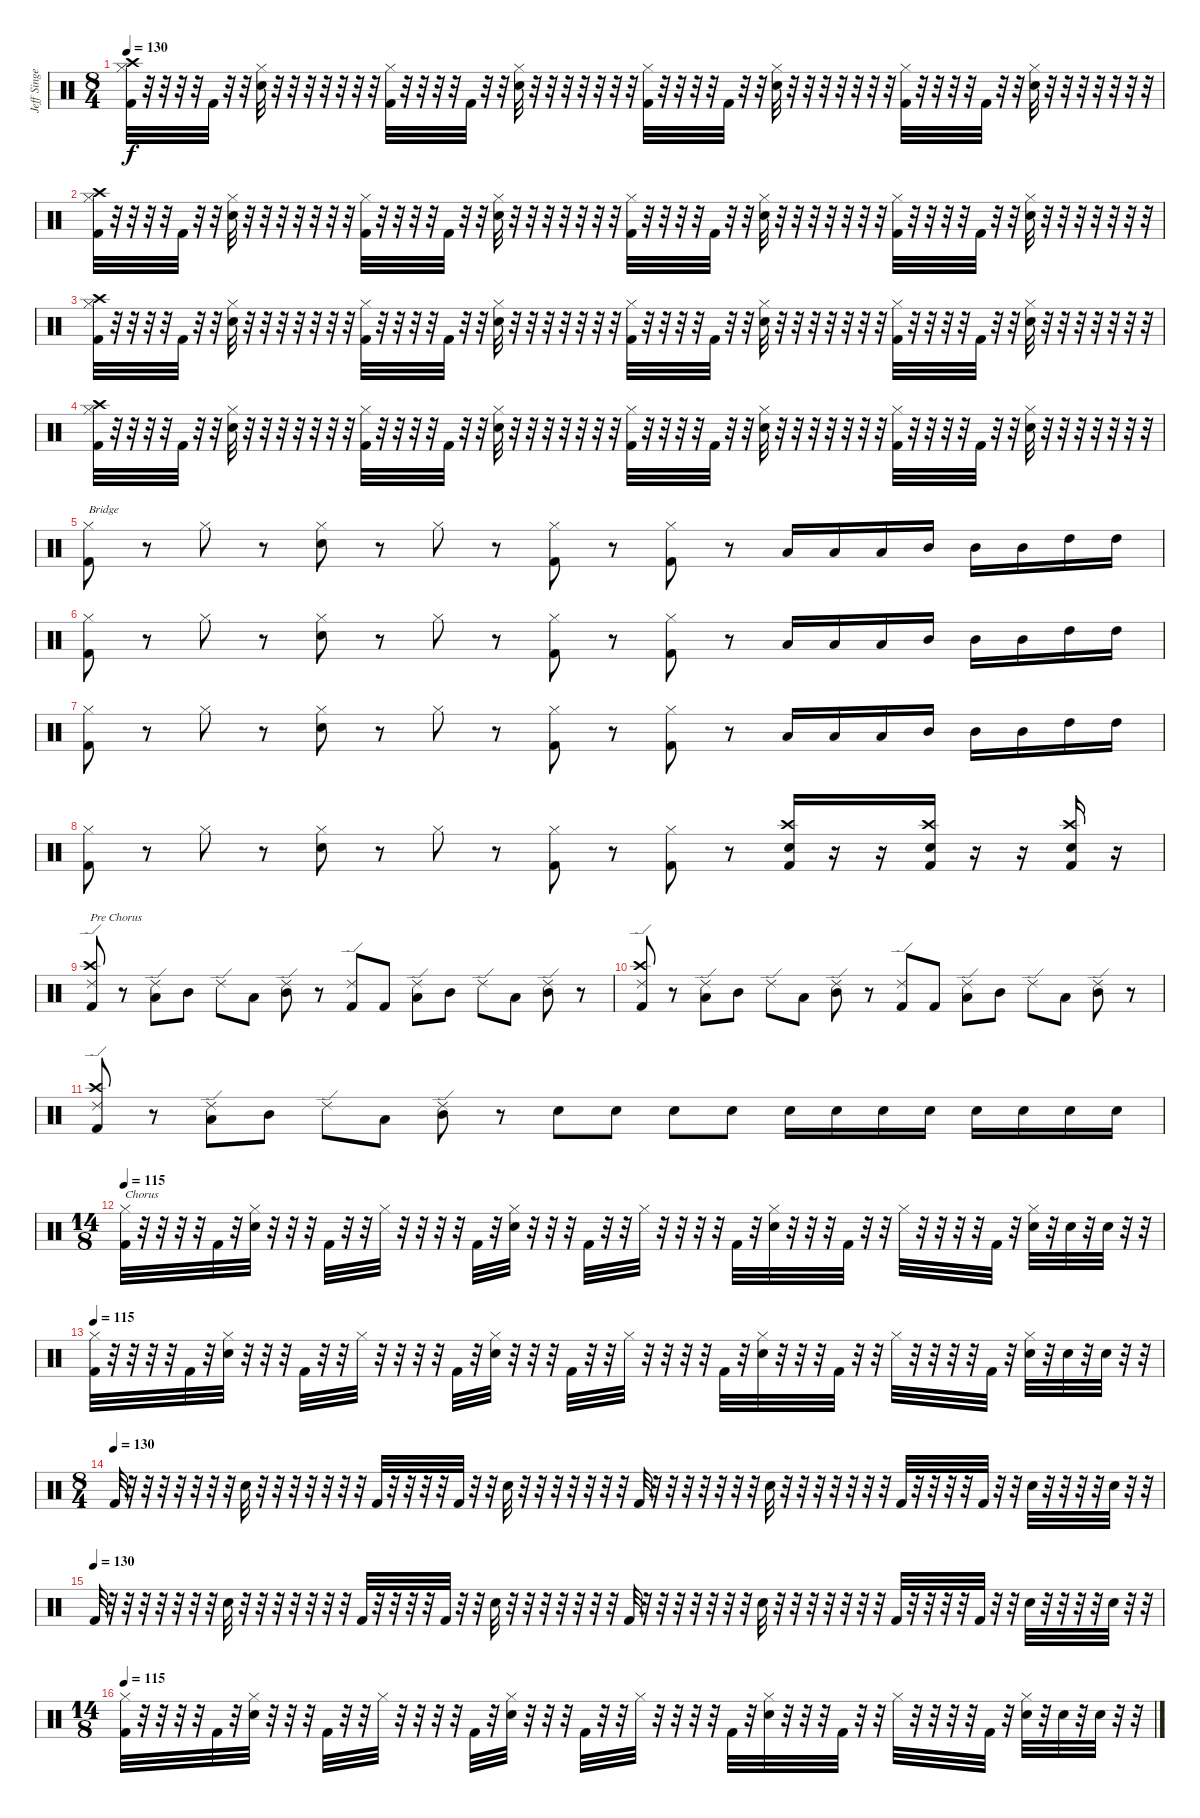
\track ("Jeff Singer" "Jeff Singe") {instrument percussion}
\staff {score}
\articulation defaults
\ts (8 4)
\tempo 130
\clef neutral
\ks c
("Hi-Hat (closed)" "Kick (hit) 2" "Crash high (hit)").32{dy f} r.32 r.32 r.32 r.32 "Kick (hit) 2".32 r.32 r.32 ("Hi-Hat (closed)" "Snare (hit) 2").32 r.32 r.32 r.32 r.32 r.32 r.32 r.32 ("Hi-Hat (closed)" "Kick (hit) 2").32 r.32 r.32 r.32 r.32 "Kick (hit) 2".32 r.32 r.32 ("Hi-Hat (closed)" "Snare (hit) 2").32 r.32 r.32 r.32 r.32 r.32 r.32 r.32 ("Hi-Hat (closed)" "Kick (hit) 2").32 r.32 r.32 r.32 r.32 "Kick (hit) 2".32 r.32 r.32 ("Hi-Hat (closed)" "Snare (hit) 2").32 r.32 r.32 r.32 r.32 r.32 r.32 r.32 ("Hi-Hat (closed)" "Kick (hit) 2").32 r.32 r.32 r.32 r.32 "Kick (hit) 2".32 r.32 r.32 ("Hi-Hat (closed)" "Snare (hit) 2").32 r.32 r.32 r.32 r.32 r.32 r.32 r.32 |
("Hi-Hat (closed)" "Kick (hit) 2" "Crash high (hit)").32 r.32 r.32 r.32 r.32 "Kick (hit) 2".32 r.32 r.32 ("Hi-Hat (closed)" "Snare (hit) 2").32 r.32 r.32 r.32 r.32 r.32 r.32 r.32 ("Hi-Hat (closed)" "Kick (hit) 2").32 r.32 r.32 r.32 r.32 "Kick (hit) 2".32 r.32 r.32 ("Hi-Hat (closed)" "Snare (hit) 2").32 r.32 r.32 r.32 r.32 r.32 r.32 r.32 ("Hi-Hat (closed)" "Kick (hit) 2").32 r.32 r.32 r.32 r.32 "Kick (hit) 2".32 r.32 r.32 ("Hi-Hat (closed)" "Snare (hit) 2").32 r.32 r.32 r.32 r.32 r.32 r.32 r.32 ("Hi-Hat (closed)" "Kick (hit) 2").32 r.32 r.32 r.32 r.32 "Kick (hit) 2".32 r.32 r.32 ("Hi-Hat (closed)" "Snare (hit) 2").32 r.32 r.32 r.32 r.32 r.32 r.32 r.32 |
("Hi-Hat (closed)" "Kick (hit) 2" "Crash high (hit)").32 r.32 r.32 r.32 r.32 "Kick (hit) 2".32 r.32 r.32 ("Hi-Hat (closed)" "Snare (hit) 2").32 r.32 r.32 r.32 r.32 r.32 r.32 r.32 ("Hi-Hat (closed)" "Kick (hit) 2").32 r.32 r.32 r.32 r.32 "Kick (hit) 2".32 r.32 r.32 ("Hi-Hat (closed)" "Snare (hit) 2").32 r.32 r.32 r.32 r.32 r.32 r.32 r.32 ("Hi-Hat (closed)" "Kick (hit) 2").32 r.32 r.32 r.32 r.32 "Kick (hit) 2".32 r.32 r.32 ("Hi-Hat (closed)" "Snare (hit) 2").32 r.32 r.32 r.32 r.32 r.32 r.32 r.32 ("Hi-Hat (closed)" "Kick (hit) 2").32 r.32 r.32 r.32 r.32 "Kick (hit) 2".32 r.32 r.32 ("Hi-Hat (closed)" "Snare (hit) 2").32 r.32 r.32 r.32 r.32 r.32 r.32 r.32 |
("Hi-Hat (closed)" "Kick (hit) 2" "Crash high (hit)").32 r.32 r.32 r.32 r.32 "Kick (hit) 2".32 r.32 r.32 ("Hi-Hat (closed)" "Snare (hit) 2").32 r.32 r.32 r.32 r.32 r.32 r.32 r.32 ("Hi-Hat (closed)" "Kick (hit) 2").32 r.32 r.32 r.32 r.32 "Kick (hit) 2".32 r.32 r.32 ("Hi-Hat (closed)" "Snare (hit) 2").32 r.32 r.32 r.32 r.32 r.32 r.32 r.32 ("Hi-Hat (closed)" "Kick (hit) 2").32 r.32 r.32 r.32 r.32 "Kick (hit) 2".32 r.32 r.32 ("Hi-Hat (closed)" "Snare (hit) 2").32 r.32 r.32 r.32 r.32 r.32 r.32 r.32 ("Hi-Hat (closed)" "Kick (hit) 2").32 r.32 r.32 r.32 r.32 "Kick (hit) 2".32 r.32 r.32 ("Hi-Hat (closed)" "Snare (hit) 2").32 r.32 r.32 r.32 r.32 r.32 r.32 r.32 |
("Hi-Hat (closed)" "Kick (hit) 2").8{txt "Bridge"} r.8 "Hi-Hat (closed)".8 r.8 ("Hi-Hat (closed)" "Snare (hit) 2").8 r.8 "Hi-Hat (closed)".8 r.8 ("Hi-Hat (closed)" "Kick (hit) 2").8 r.8 ("Hi-Hat (closed)" "Kick (hit) 2").8 r.8 "Low Tom (hit)".16 "Low Tom (hit)".16 "Low Tom (hit)".16 "Mid Tom (hit)".16 "Mid Tom (hit)".16 "Mid Tom (hit)".16 "High Tom (hit)".16 "High Tom (hit)".16 |
("Hi-Hat (closed)" "Kick (hit) 2").8 r.8 "Hi-Hat (closed)".8 r.8 ("Hi-Hat (closed)" "Snare (hit) 2").8 r.8 "Hi-Hat (closed)".8 r.8 ("Hi-Hat (closed)" "Kick (hit) 2").8 r.8 ("Hi-Hat (closed)" "Kick (hit) 2").8 r.8 "Low Tom (hit)".16 "Low Tom (hit)".16 "Low Tom (hit)".16 "Mid Tom (hit)".16 "Mid Tom (hit)".16 "Mid Tom (hit)".16 "High Tom (hit)".16 "High Tom (hit)".16 |
("Hi-Hat (closed)" "Kick (hit) 2").8 r.8 "Hi-Hat (closed)".8 r.8 ("Hi-Hat (closed)" "Snare (hit) 2").8 r.8 "Hi-Hat (closed)".8 r.8 ("Hi-Hat (closed)" "Kick (hit) 2").8 r.8 ("Hi-Hat (closed)" "Kick (hit) 2").8 r.8 "Low Tom (hit)".16 "Low Tom (hit)".16 "Low Tom (hit)".16 "Mid Tom (hit)".16 "Mid Tom (hit)".16 "Mid Tom (hit)".16 "High Tom (hit)".16 "High Tom (hit)".16 |
("Hi-Hat (closed)" "Kick (hit) 2").8 r.8 "Hi-Hat (closed)".8 r.8 ("Hi-Hat (closed)" "Snare (hit) 2").8 r.8 "Hi-Hat (closed)".8 r.8 ("Hi-Hat (closed)" "Kick (hit) 2").8 r.8 ("Hi-Hat (closed)" "Kick (hit) 2").8 r.8 ("Kick (hit) 2" "Snare (hit) 2" "Crash high (hit)").16 r.16 r.16 ("Kick (hit) 2" "Snare (hit) 2" "Crash high (hit)").16 r.16 r.16 ("Kick (hit) 2" "Snare (hit) 2" "Crash high (hit)").16 r.16 |
("Ride (edge) 2" "Kick (hit) 2" "Crash high (hit)").8{txt "Pre Chorus"} r.8 ("Ride (edge) 2" "Low Floor Tom (hit)").8 "Mid Tom (hit)".8 "Ride (edge) 2".8 "Low Floor Tom (hit)".8 ("Ride (edge) 2" "Mid Tom (hit)").8 r.8 ("Ride (edge) 2" "Kick (hit) 2").8 "Kick (hit) 2".8 ("Ride (edge) 2" "Low Floor Tom (hit)").8 "Mid Tom (hit)".8 "Ride (edge) 2".8 "Low Floor Tom (hit)".8 ("Ride (edge) 2" "Mid Tom (hit)").8 r.8 |
("Ride (edge) 2" "Kick (hit) 2" "Crash high (hit)").8 r.8 ("Ride (edge) 2" "Low Floor Tom (hit)").8 "Mid Tom (hit)".8 "Ride (edge) 2".8 "Low Floor Tom (hit)".8 ("Ride (edge) 2" "Mid Tom (hit)").8 r.8 ("Ride (edge) 2" "Kick (hit) 2").8 "Kick (hit) 2".8 ("Ride (edge) 2" "Low Floor Tom (hit)").8 "Mid Tom (hit)".8 "Ride (edge) 2".8 "Low Floor Tom (hit)".8 ("Ride (edge) 2" "Mid Tom (hit)").8 r.8 |
("Ride (edge) 2" "Kick (hit) 2" "Crash high (hit)").8 r.8 ("Ride (edge) 2" "Low Floor Tom (hit)").8 "Mid Tom (hit)".8 "Ride (edge) 2".8 "Low Floor Tom (hit)".8 ("Ride (edge) 2" "Mid Tom (hit)").8 r.8 "Snare (hit) 2".8 "Snare (hit) 2".8 "Snare (hit) 2".8 "Snare (hit) 2".8 "Snare (hit) 2".16 "Snare (hit) 2".16 "Snare (hit) 2".16 "Snare (hit) 2".16 "Snare (hit) 2".16 "Snare (hit) 2".16 "Snare (hit) 2".16 "Snare (hit) 2".16 |
\ts (14 8)
\tempo 115
("Hi-Hat (closed)" "Kick (hit) 2").32{txt "Chorus"} r.32 r.32 r.32 r.32 "Kick (hit) 2".32 r.32 ("Hi-Hat (closed)" "Snare (hit) 2").32 r.32 r.32 r.32 "Kick (hit) 2".32 r.32 r.32 "Hi-Hat (closed)".32 r.32 r.32 r.32 r.32 "Kick (hit) 2".32 r.32 ("Hi-Hat (closed)" "Snare (hit) 2").32 r.32 r.32 r.32 "Kick (hit) 2".32 r.32 r.32 "Hi-Hat (closed)".32 r.32 r.32 r.32 r.32 "Kick (hit) 2".32 r.32 ("Hi-Hat (closed)" "Snare (hit) 2").32 r.32 r.32 r.32 "Kick (hit) 2".32 r.32 r.32 "Hi-Hat (closed)".32 r.32 r.32 r.32 r.32 "Kick (hit) 2".32 r.32 ("Hi-Hat (closed)" "Snare (hit) 2").32 r.32 "Snare (hit) 2".32 r.32 "Snare (hit) 2".32 r.32 r.32 |
\tempo 115
("Hi-Hat (closed)" "Kick (hit) 2").32 r.32 r.32 r.32 r.32 "Kick (hit) 2".32 r.32 ("Hi-Hat (closed)" "Snare (hit) 2").32 r.32 r.32 r.32 "Kick (hit) 2".32 r.32 r.32 "Hi-Hat (closed)".32 r.32 r.32 r.32 r.32 "Kick (hit) 2".32 r.32 ("Hi-Hat (closed)" "Snare (hit) 2").32 r.32 r.32 r.32 "Kick (hit) 2".32 r.32 r.32 "Hi-Hat (closed)".32 r.32 r.32 r.32 r.32 "Kick (hit) 2".32 r.32 ("Hi-Hat (closed)" "Snare (hit) 2").32 r.32 r.32 r.32 "Kick (hit) 2".32 r.32 r.32 "Hi-Hat (closed)".32 r.32 r.32 r.32 r.32 "Kick (hit) 2".32 r.32 ("Hi-Hat (closed)" "Snare (hit) 2").32 r.32 "Snare (hit) 2".32 r.32 "Snare (hit) 2".32 r.32 r.32 |
\ts (8 4)
\tempo (130)
"Kick (hit) 2".32 r.32 r.32 r.32 r.32 r.32 r.32 r.32 "Snare (hit) 2".32 r.32 r.32 r.32 r.32 r.32 r.32 r.32 "Kick (hit) 2".32 r.32 r.32 r.32 r.32 "Kick (hit) 2".32 r.32 r.32 "Snare (hit) 2".32 r.32 r.32 r.32 r.32 r.32 r.32 r.32 "Kick (hit) 2".32 r.32 r.32 r.32 r.32 r.32 r.32 r.32 "Snare (hit) 2".32 r.32 r.32 r.32 r.32 r.32 r.32 r.32 "Kick (hit) 2".32 r.32 r.32 r.32 r.32 "Kick (hit) 2".32 r.32 r.32 "Snare (hit) 2".32 r.32 r.32 r.32 r.32 "Snare (hit) 2".32 r.32 r.32 |
\tempo (130)
"Kick (hit) 2".32 r.32 r.32 r.32 r.32 r.32 r.32 r.32 "Snare (hit) 2".32 r.32 r.32 r.32 r.32 r.32 r.32 r.32 "Kick (hit) 2".32 r.32 r.32 r.32 r.32 "Kick (hit) 2".32 r.32 r.32 "Snare (hit) 2".32 r.32 r.32 r.32 r.32 r.32 r.32 r.32 "Kick (hit) 2".32 r.32 r.32 r.32 r.32 r.32 r.32 r.32 "Snare (hit) 2".32 r.32 r.32 r.32 r.32 r.32 r.32 r.32 "Kick (hit) 2".32 r.32 r.32 r.32 r.32 "Kick (hit) 2".32 r.32 r.32 "Snare (hit) 2".32 r.32 r.32 r.32 r.32 "Snare (hit) 2".32 r.32 r.32 |
\ts (14 8)
\tempo 115
("Hi-Hat (closed)" "Kick (hit) 2").32 r.32 r.32 r.32 r.32 "Kick (hit) 2".32 r.32 ("Hi-Hat (closed)" "Snare (hit) 2").32 r.32 r.32 r.32 "Kick (hit) 2".32 r.32 r.32 "Hi-Hat (closed)".32 r.32 r.32 r.32 r.32 "Kick (hit) 2".32 r.32 ("Hi-Hat (closed)" "Snare (hit) 2").32 r.32 r.32 r.32 "Kick (hit) 2".32 r.32 r.32 "Hi-Hat (closed)".32 r.32 r.32 r.32 r.32 "Kick (hit) 2".32 r.32 ("Hi-Hat (closed)" "Snare (hit) 2").32 r.32 r.32 r.32 "Kick (hit) 2".32 r.32 r.32 "Hi-Hat (closed)".32 r.32 r.32 r.32 r.32 "Kick (hit) 2".32 r.32 ("Hi-Hat (closed)" "Snare (hit) 2").32 r.32 "Snare (hit) 2".32 r.32 "Snare (hit) 2".32 r.32 r.32
